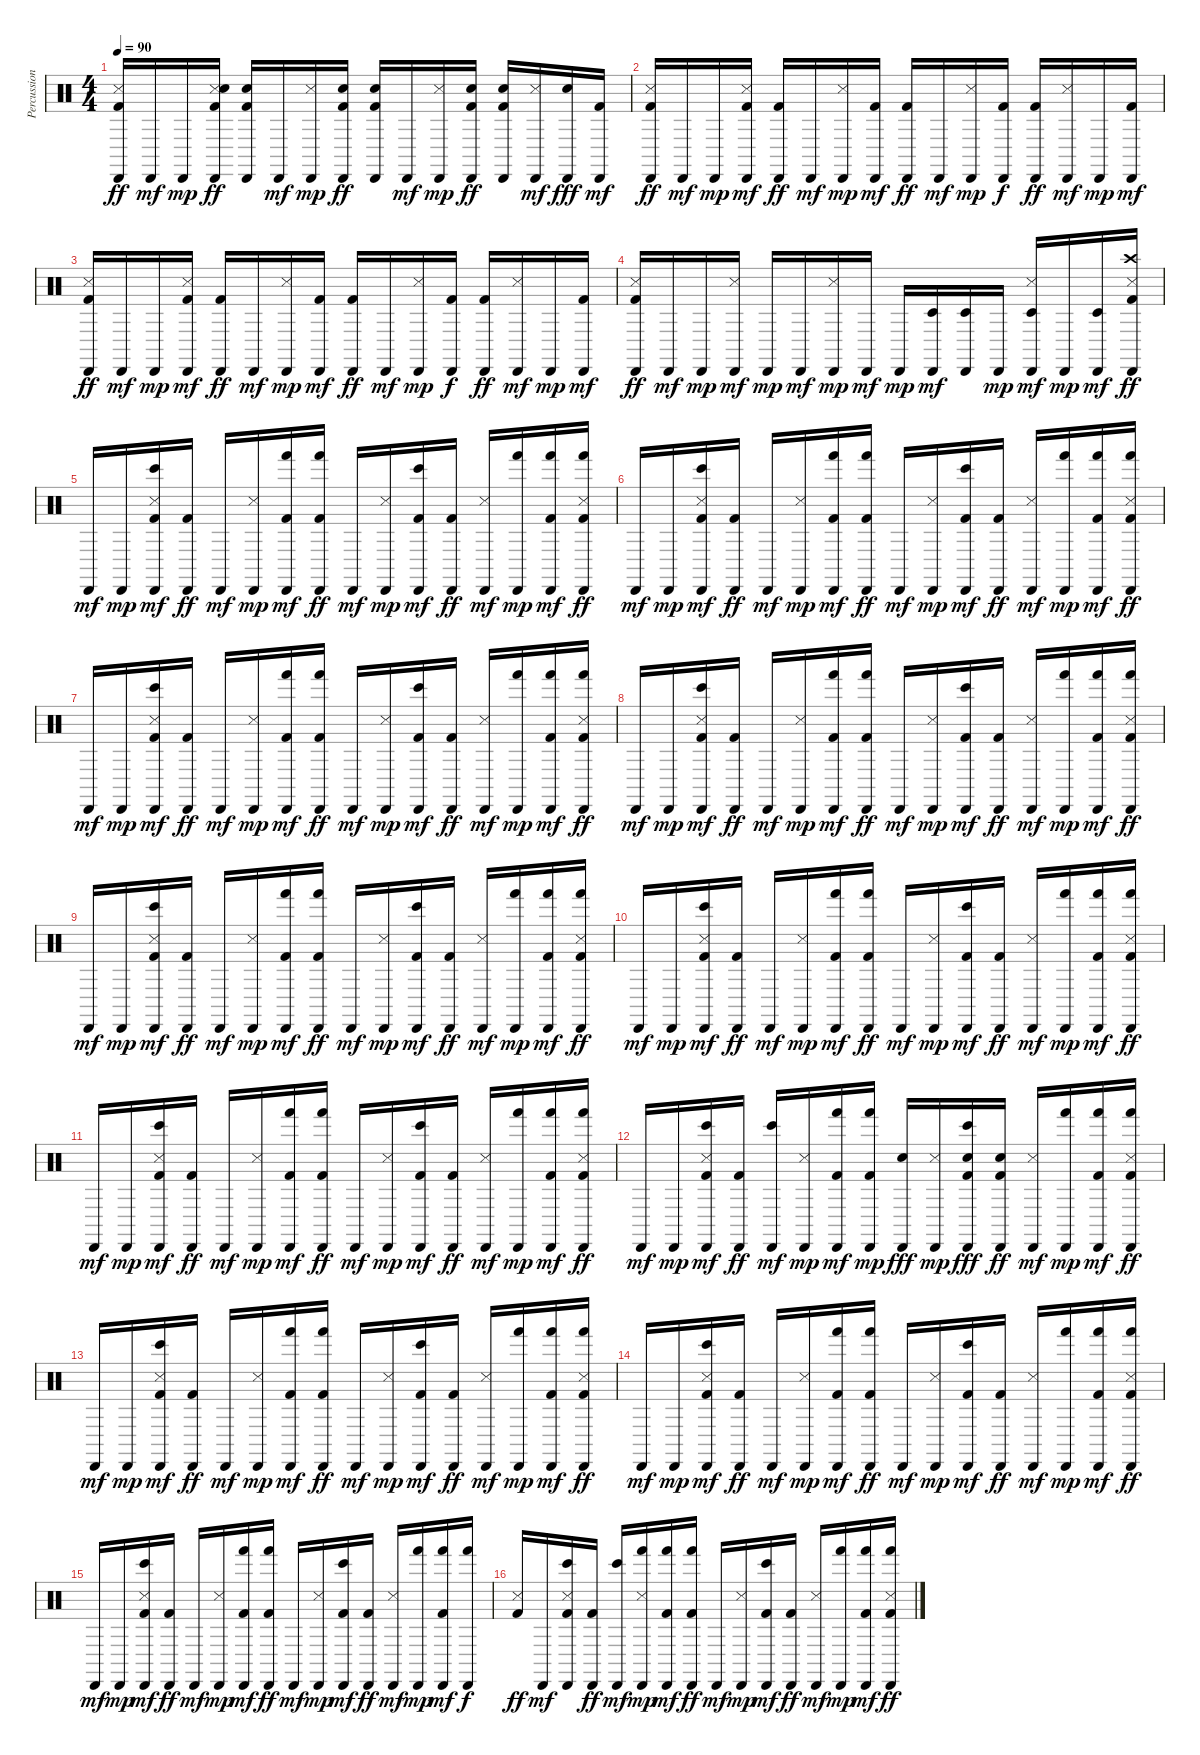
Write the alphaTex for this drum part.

\track ("Percussions" "Percussion") {instrument percussion}
\staff {score}
\articulation defaults
\ts (4 4)
\tempo 90
\clef neutral
\ks c
("Cabasa (hit)" "Snare (side stick) 3" "Kick (hit) 2").16{dy ff} "Cabasa (hit)".16{dy mf} "Cabasa (hit)".16{dy mp} ("Cabasa (hit)" "Snare (side stick) 3" "Snare (hit) 2" "Kick (hit) 2").16{dy ff} ("Cabasa (hit)" "Snare (hit) 2" "Kick (hit) 2").16 "Cabasa (hit)".16{dy mf} ("Cabasa (hit)" "Snare (side stick) 3").16{dy mp} ("Cabasa (hit)" "Snare (hit) 2" "Kick (hit) 2").16{dy ff} ("Cabasa (hit)" "Snare (hit) 2" "Kick (hit) 2").16 "Cabasa (hit)".16{dy mf} ("Cabasa (hit)" "Snare (side stick) 3").16{dy mp} ("Cabasa (hit)" "Snare (hit) 2" "Kick (hit) 2").16{dy ff} ("Cabasa (hit)" "Snare (hit) 2" "Kick (hit) 2").16 ("Cabasa (hit)" "Snare (side stick) 3").16{dy mf} ("Cabasa (hit)" "Snare (hit) 2").16{dy fff} ("Cabasa (hit)" "Kick (hit) 2").16{dy mf} |
("Cabasa (hit)" "Snare (side stick) 3" "Kick (hit) 2").16{dy ff} "Cabasa (hit)".16{dy mf} "Cabasa (hit)".16{dy mp} ("Cabasa (hit)" "Snare (side stick) 3" "Kick (hit) 2").16{dy mf} ("Cabasa (hit)" "Kick (hit) 2").16{dy ff} "Cabasa (hit)".16{dy mf} ("Cabasa (hit)" "Snare (side stick) 3").16{dy mp} ("Cabasa (hit)" "Kick (hit) 2").16{dy mf} ("Cabasa (hit)" "Kick (hit) 2").16{dy ff} "Cabasa (hit)".16{dy mf} ("Cabasa (hit)" "Snare (side stick) 3").16{dy mp} ("Cabasa (hit)" "Kick (hit) 2").16{dy f} ("Cabasa (hit)" "Kick (hit) 2").16{dy ff} ("Cabasa (hit)" "Snare (side stick) 3").16{dy mf} "Cabasa (hit)".16{dy mp} ("Kick (hit) 2" "Cabasa (hit)").16{dy mf} |
("Cabasa (hit)" "Snare (side stick) 3" "Kick (hit) 2").16{dy ff} "Cabasa (hit)".16{dy mf} "Cabasa (hit)".16{dy mp} ("Cabasa (hit)" "Snare (side stick) 3" "Kick (hit) 2").16{dy mf} ("Cabasa (hit)" "Kick (hit) 2").16{dy ff} "Cabasa (hit)".16{dy mf} ("Cabasa (hit)" "Snare (side stick) 3").16{dy mp} ("Cabasa (hit)" "Kick (hit) 2").16{dy mf} ("Cabasa (hit)" "Kick (hit) 2").16{dy ff} "Cabasa (hit)".16{dy mf} ("Cabasa (hit)" "Snare (side stick) 3").16{dy mp} ("Cabasa (hit)" "Kick (hit) 2").16{dy f} ("Cabasa (hit)" "Kick (hit) 2").16{dy ff} ("Cabasa (hit)" "Snare (side stick) 3").16{dy mf} "Cabasa (hit)".16{dy mp} ("Kick (hit) 2" "Cabasa (hit)").16{dy mf} |
("Cabasa (hit)" "Snare (side stick) 3" "Kick (hit) 2").16{dy ff} "Cabasa (hit)".16{dy mf} "Cabasa (hit)".16{dy mp} ("Snare (side stick) 3" "Cabasa (hit)").16{dy mf} "Cabasa (hit)".16{dy mp} "Cabasa (hit)".16{dy mf} ("Snare (side stick) 3" "Cabasa (hit)").16{dy mp} "Cabasa (hit)".16{dy mf} "Cabasa (hit)".16{dy mp} ("Timbale low (hit)" "Cabasa (hit)").16{dy mf} ("Timbale low (hit)" "Cabasa (hit)").16 "Cabasa (hit)".16{dy mp} ("Snare (side stick) 3" "Timbale low (hit)" "Cabasa (hit)").16{dy mf} "Cabasa (hit)".16{dy mp} ("Timbale low (hit)" "Cabasa (hit)").16{dy mf} ("Cabasa (hit)" "Crash high (hit)" "Snare (side stick) 3" "Kick (hit) 2").16{dy ff} |
"Cabasa (hit)".16{dy mf} "Cabasa (hit)".16{dy mp} ("Bongo High (hit)" "Cabasa (hit)" "Snare (side stick) 3" "Kick (hit) 2").16{dy mf} ("Cabasa (hit)" "Kick (hit) 2").16{dy ff} "Cabasa (hit)".16{dy mf} ("Snare (side stick) 3" "Cabasa (hit)").16{dy mp} ("Hand (hit)" "Cabasa (hit)" "Kick (hit) 2").16{dy mf} ("Hand (hit)" "Cabasa (hit)" "Kick (hit) 2").16{dy ff} "Cabasa (hit)".16{dy mf} ("Cabasa (hit)" "Snare (side stick) 3").16{dy mp} ("Bongo High (hit)" "Cabasa (hit)" "Kick (hit) 2").16{dy mf} ("Cabasa (hit)" "Kick (hit) 2").16{dy ff} ("Cabasa (hit)" "Snare (side stick) 3").16{dy mf} ("Hand (hit)" "Cabasa (hit)").16{dy mp} ("Hand (hit)" "Cabasa (hit)" "Kick (hit) 2").16{dy mf} ("Hand (hit)" "Cabasa (hit)" "Snare (side stick) 3" "Kick (hit) 2").16{dy ff} |
"Cabasa (hit)".16{dy mf} "Cabasa (hit)".16{dy mp} ("Bongo High (hit)" "Cabasa (hit)" "Snare (side stick) 3" "Kick (hit) 2").16{dy mf} ("Cabasa (hit)" "Kick (hit) 2").16{dy ff} "Cabasa (hit)".16{dy mf} ("Snare (side stick) 3" "Cabasa (hit)").16{dy mp} ("Hand (hit)" "Cabasa (hit)" "Kick (hit) 2").16{dy mf} ("Hand (hit)" "Cabasa (hit)" "Kick (hit) 2").16{dy ff} "Cabasa (hit)".16{dy mf} ("Cabasa (hit)" "Snare (side stick) 3").16{dy mp} ("Bongo High (hit)" "Cabasa (hit)" "Kick (hit) 2").16{dy mf} ("Cabasa (hit)" "Kick (hit) 2").16{dy ff} ("Cabasa (hit)" "Snare (side stick) 3").16{dy mf} ("Hand (hit)" "Cabasa (hit)").16{dy mp} ("Hand (hit)" "Cabasa (hit)" "Kick (hit) 2").16{dy mf} ("Hand (hit)" "Cabasa (hit)" "Snare (side stick) 3" "Kick (hit) 2").16{dy ff} |
"Cabasa (hit)".16{dy mf} "Cabasa (hit)".16{dy mp} ("Bongo High (hit)" "Cabasa (hit)" "Snare (side stick) 3" "Kick (hit) 2").16{dy mf} ("Cabasa (hit)" "Kick (hit) 2").16{dy ff} "Cabasa (hit)".16{dy mf} ("Snare (side stick) 3" "Cabasa (hit)").16{dy mp} ("Hand (hit)" "Cabasa (hit)" "Kick (hit) 2").16{dy mf} ("Hand (hit)" "Cabasa (hit)" "Kick (hit) 2").16{dy ff} "Cabasa (hit)".16{dy mf} ("Cabasa (hit)" "Snare (side stick) 3").16{dy mp} ("Bongo High (hit)" "Cabasa (hit)" "Kick (hit) 2").16{dy mf} ("Cabasa (hit)" "Kick (hit) 2").16{dy ff} ("Cabasa (hit)" "Snare (side stick) 3").16{dy mf} ("Hand (hit)" "Cabasa (hit)").16{dy mp} ("Hand (hit)" "Cabasa (hit)" "Kick (hit) 2").16{dy mf} ("Hand (hit)" "Cabasa (hit)" "Snare (side stick) 3" "Kick (hit) 2").16{dy ff} |
"Cabasa (hit)".16{dy mf} "Cabasa (hit)".16{dy mp} ("Bongo High (hit)" "Cabasa (hit)" "Snare (side stick) 3" "Kick (hit) 2").16{dy mf} ("Cabasa (hit)" "Kick (hit) 2").16{dy ff} "Cabasa (hit)".16{dy mf} ("Snare (side stick) 3" "Cabasa (hit)").16{dy mp} ("Hand (hit)" "Cabasa (hit)" "Kick (hit) 2").16{dy mf} ("Hand (hit)" "Cabasa (hit)" "Kick (hit) 2").16{dy ff} "Cabasa (hit)".16{dy mf} ("Cabasa (hit)" "Snare (side stick) 3").16{dy mp} ("Bongo High (hit)" "Cabasa (hit)" "Kick (hit) 2").16{dy mf} ("Cabasa (hit)" "Kick (hit) 2").16{dy ff} ("Cabasa (hit)" "Snare (side stick) 3").16{dy mf} ("Hand (hit)" "Cabasa (hit)").16{dy mp} ("Hand (hit)" "Cabasa (hit)" "Kick (hit) 2").16{dy mf} ("Hand (hit)" "Cabasa (hit)" "Snare (side stick) 3" "Kick (hit) 2").16{dy ff} |
"Cabasa (hit)".16{dy mf} "Cabasa (hit)".16{dy mp} ("Bongo High (hit)" "Cabasa (hit)" "Snare (side stick) 3" "Kick (hit) 2").16{dy mf} ("Cabasa (hit)" "Kick (hit) 2").16{dy ff} "Cabasa (hit)".16{dy mf} ("Cabasa (hit)" "Snare (side stick) 3").16{dy mp} ("Kick (hit) 2" "Hand (hit)" "Cabasa (hit)").16{dy mf} ("Hand (hit)" "Cabasa (hit)" "Kick (hit) 2").16{dy ff} "Cabasa (hit)".16{dy mf} ("Cabasa (hit)" "Snare (side stick) 3").16{dy mp} ("Bongo High (hit)" "Cabasa (hit)" "Kick (hit) 2").16{dy mf} ("Cabasa (hit)" "Kick (hit) 2").16{dy ff} ("Cabasa (hit)" "Snare (side stick) 3").16{dy mf} ("Hand (hit)" "Cabasa (hit)").16{dy mp} ("Hand (hit)" "Cabasa (hit)" "Kick (hit) 2").16{dy mf} ("Hand (hit)" "Cabasa (hit)" "Snare (side stick) 3" "Kick (hit) 2").16{dy ff} |
"Cabasa (hit)".16{dy mf} "Cabasa (hit)".16{dy mp} ("Bongo High (hit)" "Cabasa (hit)" "Snare (side stick) 3" "Kick (hit) 2").16{dy mf} ("Cabasa (hit)" "Kick (hit) 2").16{dy ff} "Cabasa (hit)".16{dy mf} ("Cabasa (hit)" "Snare (side stick) 3").16{dy mp} ("Kick (hit) 2" "Hand (hit)" "Cabasa (hit)").16{dy mf} ("Hand (hit)" "Cabasa (hit)" "Kick (hit) 2").16{dy ff} "Cabasa (hit)".16{dy mf} ("Cabasa (hit)" "Snare (side stick) 3").16{dy mp} ("Bongo High (hit)" "Cabasa (hit)" "Kick (hit) 2").16{dy mf} ("Cabasa (hit)" "Kick (hit) 2").16{dy ff} ("Cabasa (hit)" "Snare (side stick) 3").16{dy mf} ("Hand (hit)" "Cabasa (hit)").16{dy mp} ("Hand (hit)" "Cabasa (hit)" "Kick (hit) 2").16{dy mf} ("Hand (hit)" "Cabasa (hit)" "Snare (side stick) 3" "Kick (hit) 2").16{dy ff} |
"Cabasa (hit)".16{dy mf} "Cabasa (hit)".16{dy mp} ("Bongo High (hit)" "Cabasa (hit)" "Snare (side stick) 3" "Kick (hit) 2").16{dy mf} ("Cabasa (hit)" "Kick (hit) 2").16{dy ff} "Cabasa (hit)".16{dy mf} ("Cabasa (hit)" "Snare (side stick) 3").16{dy mp} ("Kick (hit) 2" "Hand (hit)" "Cabasa (hit)").16{dy mf} ("Hand (hit)" "Cabasa (hit)" "Kick (hit) 2").16{dy ff} "Cabasa (hit)".16{dy mf} ("Cabasa (hit)" "Snare (side stick) 3").16{dy mp} ("Bongo High (hit)" "Cabasa (hit)" "Kick (hit) 2").16{dy mf} ("Cabasa (hit)" "Kick (hit) 2").16{dy ff} ("Cabasa (hit)" "Snare (side stick) 3").16{dy mf} ("Hand (hit)" "Cabasa (hit)").16{dy mp} ("Hand (hit)" "Cabasa (hit)" "Kick (hit) 2").16{dy mf} ("Hand (hit)" "Cabasa (hit)" "Snare (side stick) 3" "Kick (hit) 2").16{dy ff} |
"Cabasa (hit)".16{dy mf} "Cabasa (hit)".16{dy mp} ("Bongo High (hit)" "Cabasa (hit)" "Snare (side stick) 3" "Kick (hit) 2").16{dy mf} ("Cabasa (hit)" "Kick (hit) 2").16{dy ff} ("Bongo High (hit)" "Cabasa (hit)").16{dy mf} ("Snare (side stick) 3" "Cabasa (hit)").16{dy mp} ("Hand (hit)" "Cabasa (hit)" "Kick (hit) 2").16{dy mf} ("Kick (hit) 2" "Hand (hit)" "Cabasa (hit)").16{dy mp} ("Cabasa (hit)" "Snare (hit) 2").16{dy fff} ("Cabasa (hit)" "Snare (side stick) 3").16{dy mp} ("Bongo High (hit)" "Cabasa (hit)" "Snare (hit) 2" "Kick (hit) 2").16{dy fff} ("Cabasa (hit)" "Snare (hit) 2" "Kick (hit) 2").16{dy ff} ("Cabasa (hit)" "Snare (side stick) 3").16{dy mf} ("Hand (hit)" "Cabasa (hit)").16{dy mp} ("Hand (hit)" "Cabasa (hit)" "Kick (hit) 2").16{dy mf} ("Hand (hit)" "Cabasa (hit)" "Snare (side stick) 3" "Kick (hit) 2").16{dy ff} |
"Cabasa (hit)".16{dy mf} "Cabasa (hit)".16{dy mp} ("Bongo High (hit)" "Cabasa (hit)" "Snare (side stick) 3" "Kick (hit) 2").16{dy mf} ("Cabasa (hit)" "Kick (hit) 2").16{dy ff} "Cabasa (hit)".16{dy mf} ("Cabasa (hit)" "Snare (side stick) 3").16{dy mp} ("Kick (hit) 2" "Hand (hit)" "Cabasa (hit)").16{dy mf} ("Hand (hit)" "Cabasa (hit)" "Kick (hit) 2").16{dy ff} "Cabasa (hit)".16{dy mf} ("Cabasa (hit)" "Snare (side stick) 3").16{dy mp} ("Bongo High (hit)" "Cabasa (hit)" "Kick (hit) 2").16{dy mf} ("Cabasa (hit)" "Kick (hit) 2").16{dy ff} ("Cabasa (hit)" "Snare (side stick) 3").16{dy mf} ("Hand (hit)" "Cabasa (hit)").16{dy mp} ("Hand (hit)" "Cabasa (hit)" "Kick (hit) 2").16{dy mf} ("Hand (hit)" "Cabasa (hit)" "Snare (side stick) 3" "Kick (hit) 2").16{dy ff} |
"Cabasa (hit)".16{dy mf} "Cabasa (hit)".16{dy mp} ("Bongo High (hit)" "Cabasa (hit)" "Snare (side stick) 3" "Kick (hit) 2").16{dy mf} ("Cabasa (hit)" "Kick (hit) 2").16{dy ff} "Cabasa (hit)".16{dy mf} ("Cabasa (hit)" "Snare (side stick) 3").16{dy mp} ("Kick (hit) 2" "Hand (hit)" "Cabasa (hit)").16{dy mf} ("Hand (hit)" "Cabasa (hit)" "Kick (hit) 2").16{dy ff} "Cabasa (hit)".16{dy mf} ("Cabasa (hit)" "Snare (side stick) 3").16{dy mp} ("Bongo High (hit)" "Cabasa (hit)" "Kick (hit) 2").16{dy mf} ("Cabasa (hit)" "Kick (hit) 2").16{dy ff} ("Cabasa (hit)" "Snare (side stick) 3").16{dy mf} ("Hand (hit)" "Cabasa (hit)").16{dy mp} ("Hand (hit)" "Cabasa (hit)" "Kick (hit) 2").16{dy mf} ("Hand (hit)" "Cabasa (hit)" "Snare (side stick) 3" "Kick (hit) 2").16{dy ff} |
"Cabasa (hit)".16{dy mf} "Cabasa (hit)".16{dy mp} ("Bongo High (hit)" "Cabasa (hit)" "Snare (side stick) 3" "Kick (hit) 2").16{dy mf} ("Cabasa (hit)" "Kick (hit) 2").16{dy ff} "Cabasa (hit)".16{dy mf} ("Cabasa (hit)" "Snare (side stick) 3").16{dy mp} ("Kick (hit) 2" "Hand (hit)" "Cabasa (hit)").16{dy mf} ("Hand (hit)" "Cabasa (hit)" "Kick (hit) 2").16{dy ff} "Cabasa (hit)".16{dy mf} ("Cabasa (hit)" "Snare (side stick) 3").16{dy mp} ("Bongo High (hit)" "Cabasa (hit)" "Kick (hit) 2").16{dy mf} ("Cabasa (hit)" "Kick (hit) 2").16{dy ff} ("Cabasa (hit)" "Snare (side stick) 3").16{dy mf} ("Hand (hit)" "Cabasa (hit)").16{dy mp} ("Hand (hit)" "Cabasa (hit)" "Kick (hit) 2").16{dy mf} ("Hand (hit)" "Cabasa (hit)").16{dy f} |
("Snare (side stick) 3" "Kick (hit) 2").16{dy ff} "Cabasa (hit)".16{dy mf} ("Bongo High (hit)" "Cabasa (hit)" "Snare (side stick) 3" "Kick (hit) 2").16 ("Cabasa (hit)" "Kick (hit) 2").16{dy ff} ("Bongo High (hit)" "Cabasa (hit)").16{dy mf} ("Hand (hit)" "Cabasa (hit)" "Snare (side stick) 3").16{dy mp} ("Hand (hit)" "Cabasa (hit)" "Kick (hit) 2").16{dy mf} ("Hand (hit)" "Cabasa (hit)" "Kick (hit) 2").16{dy ff} "Cabasa (hit)".16{dy mf} ("Cabasa (hit)" "Snare (side stick) 3").16{dy mp} ("Bongo High (hit)" "Cabasa (hit)" "Kick (hit) 2").16{dy mf} ("Cabasa (hit)" "Kick (hit) 2").16{dy ff} ("Cabasa (hit)" "Snare (side stick) 3").16{dy mf} ("Hand (hit)" "Cabasa (hit)").16{dy mp} ("Hand (hit)" "Cabasa (hit)" "Kick (hit) 2").16{dy mf} ("Hand (hit)" "Cabasa (hit)" "Snare (side stick) 3" "Kick (hit) 2").16{dy ff}
